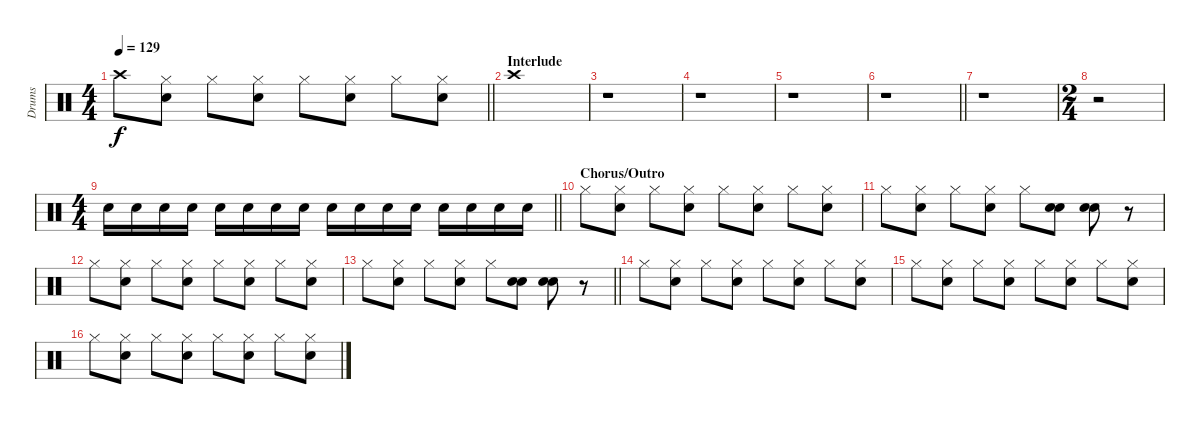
\track ("Drums" "Drums") {instrument percussion}
\staff {score}
\articulation defaults
\ts (4 4)
\tempo 129
\clef neutral
\barLineRight lightlight
\ks c "Crash high (hit)".8{dy f}
("Hi-Hat (closed)" "Electric Snare (hit)").8 "Hi-Hat (closed)".8 ("Hi-Hat (closed)" "Electric Snare (hit)").8 "Hi-Hat (closed)".8 ("Hi-Hat (closed)" "Electric Snare (hit)").8 "Hi-Hat (closed)".8 ("Hi-Hat (closed)" "Electric Snare (hit)").8 |
\section ("" "Interlude")
"Crash high (hit)".1 |
r.1 |
r.1 |
r.1 |
\barLineRight lightlight
r.1 |
r.1 |
\ts (2 4)
r.2 |
\ts (4 4)
\barLineRight lightlight "Electric Snare (hit)".16 "Electric Snare (hit)".16 "Electric Snare (hit)".16 "Electric Snare (hit)".16 "Electric Snare (hit)".16 "Electric Snare (hit)".16 "Electric Snare (hit)".16 "Electric Snare (hit)".16 "Electric Snare (hit)".16 "Electric Snare (hit)".16 "Electric Snare (hit)".16 "Electric Snare (hit)".16 "Electric Snare (hit)".16 "Electric Snare (hit)".16 "Electric Snare (hit)".16 "Electric Snare (hit)".16
|
\section ("" "Chorus/Outro")
"Hi-Hat (closed)".8 ("Hi-Hat (closed)" "Electric Snare (hit)").8 "Hi-Hat (closed)".8 ("Hi-Hat (closed)" "Electric Snare (hit)").8 "Hi-Hat (closed)".8 ("Hi-Hat (closed)" "Electric Snare (hit)").8 "Hi-Hat (closed)".8 ("Hi-Hat (closed)" "Electric Snare (hit)").8 |
"Hi-Hat (closed)".8 ("Hi-Hat (closed)" "Electric Snare (hit)").8 "Hi-Hat (closed)".8 ("Hi-Hat (closed)" "Electric Snare (hit)").8 "Hi-Hat (closed)".8 ("Electric Snare (hit)" "Electric Snare (hit)").8 ("Electric Snare (hit)" "Electric Snare (hit)").8 r.8 |
"Hi-Hat (closed)".8 ("Hi-Hat (closed)" "Electric Snare (hit)").8 "Hi-Hat (closed)".8 ("Hi-Hat (closed)" "Electric Snare (hit)").8 "Hi-Hat (closed)".8 ("Hi-Hat (closed)" "Electric Snare (hit)").8 "Hi-Hat (closed)".8 ("Hi-Hat (closed)" "Electric Snare (hit)").8 |
\barLineRight lightlight "Hi-Hat (closed)".8
("Hi-Hat (closed)" "Electric Snare (hit)").8 "Hi-Hat (closed)".8 ("Hi-Hat (closed)" "Electric Snare (hit)").8 "Hi-Hat (closed)".8 ("Electric Snare (hit)" "Electric Snare (hit)").8 ("Electric Snare (hit)" "Electric Snare (hit)").8 r.8 |
"Hi-Hat (closed)".8 ("Hi-Hat (closed)" "Electric Snare (hit)").8 "Hi-Hat (closed)".8 ("Hi-Hat (closed)" "Electric Snare (hit)").8 "Hi-Hat (closed)".8 ("Hi-Hat (closed)" "Electric Snare (hit)").8 "Hi-Hat (closed)".8 ("Hi-Hat (closed)" "Electric Snare (hit)").8 |
"Hi-Hat (closed)".8 ("Hi-Hat (closed)" "Electric Snare (hit)").8 "Hi-Hat (closed)".8 ("Hi-Hat (closed)" "Electric Snare (hit)").8 "Hi-Hat (closed)".8 ("Hi-Hat (closed)" "Electric Snare (hit)").8 "Hi-Hat (closed)".8 ("Hi-Hat (closed)" "Electric Snare (hit)").8 |
"Hi-Hat (closed)".8 ("Hi-Hat (closed)" "Electric Snare (hit)").8 "Hi-Hat (closed)".8 ("Hi-Hat (closed)" "Electric Snare (hit)").8 "Hi-Hat (closed)".8 ("Hi-Hat (closed)" "Electric Snare (hit)").8 "Hi-Hat (closed)".8 ("Hi-Hat (closed)" "Electric Snare (hit)").8
